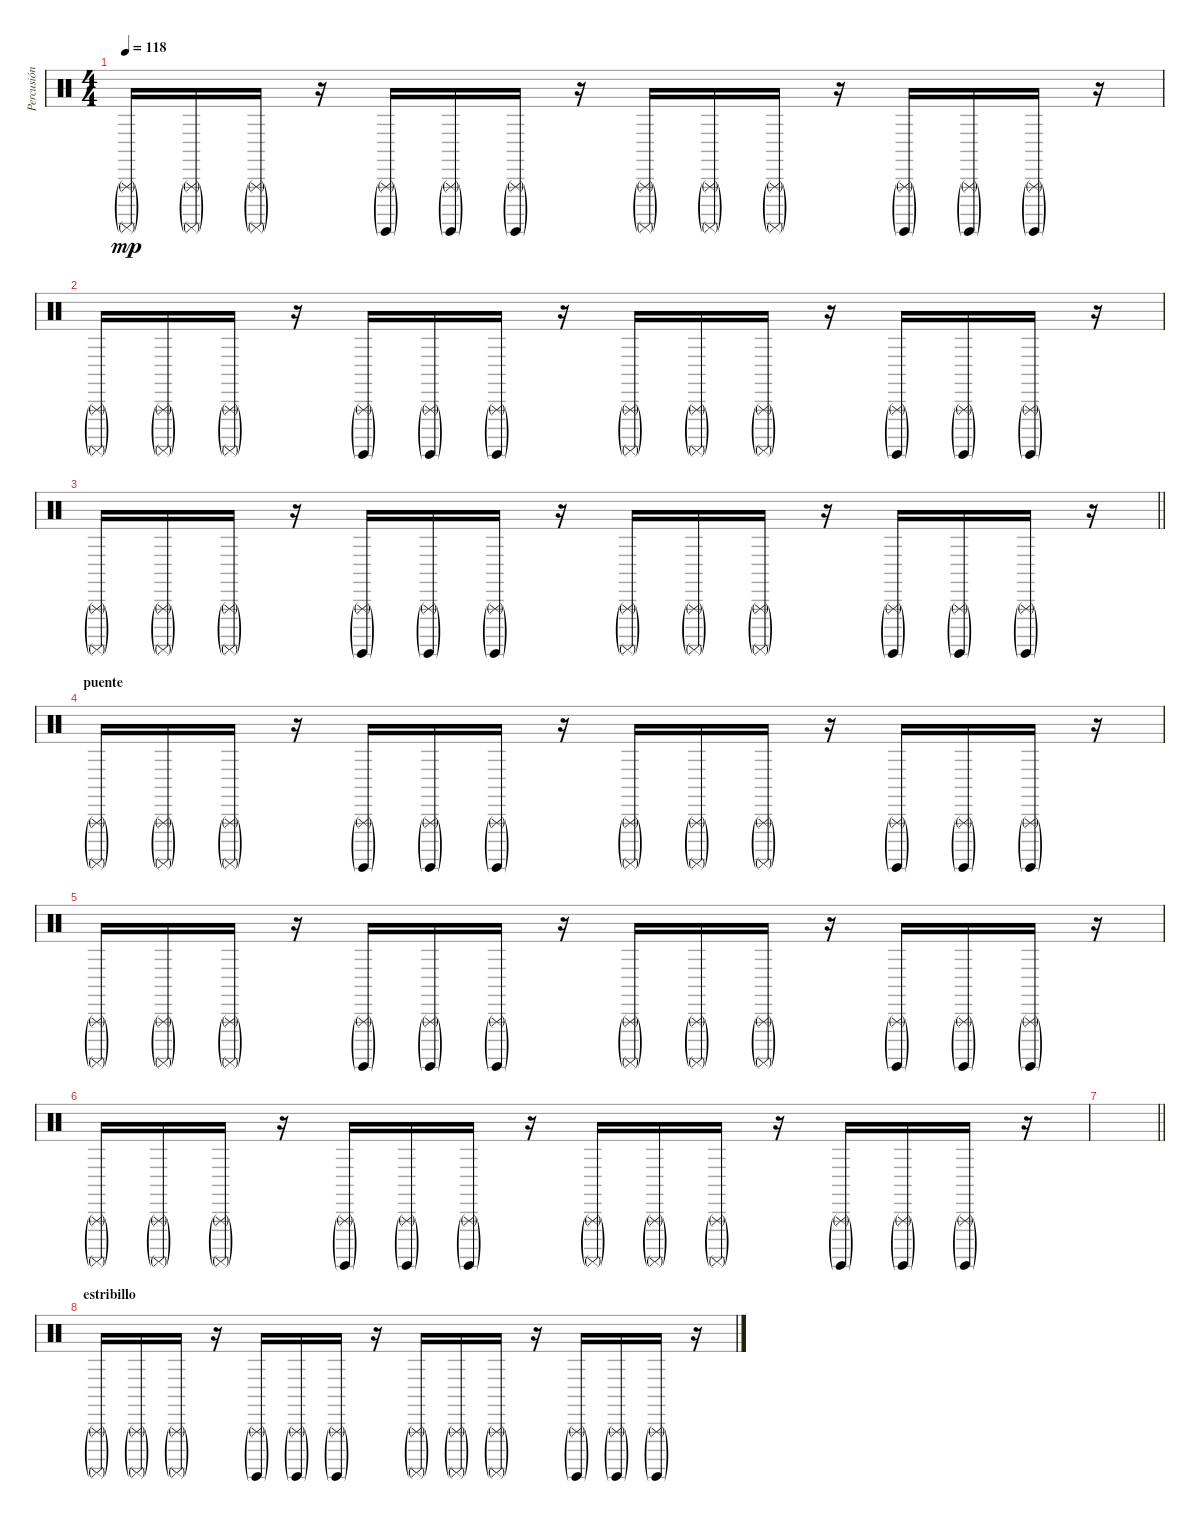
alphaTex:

\track ("Percusión" "Percusión") {instrument percussion}
\staff {score}
\articulation defaults
\ts (4 4)
\tempo 118
\clef neutral
\ks c
("Triangle (rnute)"{g} "Surdo (mute)"{g}).16{dy mp} ("Triangle (rnute)"{g} "Surdo (mute)"{g}).16 ("Triangle (rnute)"{g} "Surdo (mute)"{g}).16 r.16 ("Triangle (rnute)"{g} "Surdo (hit)"{g}).16 ("Triangle (rnute)"{g} "Surdo (hit)"{g}).16 ("Triangle (rnute)"{g} "Surdo (hit)"{g}).16 r.16 ("Triangle (rnute)"{g} "Surdo (mute)"{g}).16 ("Triangle (rnute)"{g} "Surdo (mute)"{g}).16 ("Triangle (rnute)"{g} "Surdo (mute)"{g}).16 r.16 ("Triangle (rnute)"{g} "Surdo (hit)"{g}).16 ("Triangle (rnute)"{g} "Surdo (hit)"{g}).16 ("Triangle (rnute)"{g} "Surdo (hit)"{g}).16 r.16 |
("Triangle (rnute)"{g} "Surdo (mute)"{g}).16 ("Triangle (rnute)"{g} "Surdo (mute)"{g}).16 ("Triangle (rnute)"{g} "Surdo (mute)"{g}).16 r.16 ("Triangle (rnute)"{g} "Surdo (hit)"{g}).16 ("Triangle (rnute)"{g} "Surdo (hit)"{g}).16 ("Triangle (rnute)"{g} "Surdo (hit)"{g}).16 r.16 ("Triangle (rnute)"{g} "Surdo (mute)"{g}).16 ("Triangle (rnute)"{g} "Surdo (mute)"{g}).16 ("Triangle (rnute)"{g} "Surdo (mute)"{g}).16 r.16 ("Triangle (rnute)"{g} "Surdo (hit)"{g}).16 ("Triangle (rnute)"{g} "Surdo (hit)"{g}).16 ("Triangle (rnute)"{g} "Surdo (hit)"{g}).16 r.16 |
\barLineRight lightlight
("Triangle (rnute)"{g} "Surdo (mute)"{g}).16 ("Triangle (rnute)"{g} "Surdo (mute)"{g}).16 ("Triangle (rnute)"{g} "Surdo (mute)"{g}).16 r.16 ("Triangle (rnute)"{g} "Surdo (hit)"{g}).16 ("Triangle (rnute)"{g} "Surdo (hit)"{g}).16 ("Triangle (rnute)"{g} "Surdo (hit)"{g}).16 r.16 ("Triangle (rnute)"{g} "Surdo (mute)"{g}).16 ("Triangle (rnute)"{g} "Surdo (mute)"{g}).16 ("Triangle (rnute)"{g} "Surdo (mute)"{g}).16 r.16 ("Triangle (rnute)"{g} "Surdo (hit)"{g}).16 ("Triangle (rnute)"{g} "Surdo (hit)"{g}).16 ("Triangle (rnute)"{g} "Surdo (hit)"{g}).16 r.16 |
\section ("" "puente")
("Triangle (rnute)"{g} "Surdo (mute)"{g}).16 ("Triangle (rnute)"{g} "Surdo (mute)"{g}).16 ("Triangle (rnute)"{g} "Surdo (mute)"{g}).16 r.16 ("Triangle (rnute)"{g} "Surdo (hit)"{g}).16 ("Triangle (rnute)"{g} "Surdo (hit)"{g}).16 ("Triangle (rnute)"{g} "Surdo (hit)"{g}).16 r.16 ("Triangle (rnute)"{g} "Surdo (mute)"{g}).16 ("Triangle (rnute)"{g} "Surdo (mute)"{g}).16 ("Triangle (rnute)"{g} "Surdo (mute)"{g}).16 r.16 ("Triangle (rnute)"{g} "Surdo (hit)"{g}).16 ("Triangle (rnute)"{g} "Surdo (hit)"{g}).16 ("Triangle (rnute)"{g} "Surdo (hit)"{g}).16 r.16 |
("Triangle (rnute)"{g} "Surdo (mute)"{g}).16 ("Triangle (rnute)"{g} "Surdo (mute)"{g}).16 ("Triangle (rnute)"{g} "Surdo (mute)"{g}).16 r.16 ("Triangle (rnute)"{g} "Surdo (hit)"{g}).16 ("Triangle (rnute)"{g} "Surdo (hit)"{g}).16 ("Triangle (rnute)"{g} "Surdo (hit)"{g}).16 r.16 ("Triangle (rnute)"{g} "Surdo (mute)"{g}).16 ("Triangle (rnute)"{g} "Surdo (mute)"{g}).16 ("Triangle (rnute)"{g} "Surdo (mute)"{g}).16 r.16 ("Triangle (rnute)"{g} "Surdo (hit)"{g}).16 ("Triangle (rnute)"{g} "Surdo (hit)"{g}).16 ("Triangle (rnute)"{g} "Surdo (hit)"{g}).16 r.16 |
("Triangle (rnute)"{g} "Surdo (mute)"{g}).16 ("Triangle (rnute)"{g} "Surdo (mute)"{g}).16 ("Triangle (rnute)"{g} "Surdo (mute)"{g}).16 r.16 ("Triangle (rnute)"{g} "Surdo (hit)"{g}).16 ("Triangle (rnute)"{g} "Surdo (hit)"{g}).16 ("Triangle (rnute)"{g} "Surdo (hit)"{g}).16 r.16 ("Triangle (rnute)"{g} "Surdo (mute)"{g}).16 ("Triangle (rnute)"{g} "Surdo (mute)"{g}).16 ("Triangle (rnute)"{g} "Surdo (mute)"{g}).16 r.16 ("Triangle (rnute)"{g} "Surdo (hit)"{g}).16 ("Triangle (rnute)"{g} "Surdo (hit)"{g}).16 ("Triangle (rnute)"{g} "Surdo (hit)"{g}).16 r.16 |
\barLineRight lightlight
|
\section ("" "estribillo")
("Triangle (rnute)"{g} "Surdo (mute)"{g}).16 ("Triangle (rnute)"{g} "Surdo (mute)"{g}).16 ("Triangle (rnute)"{g} "Surdo (mute)"{g}).16 r.16 ("Triangle (rnute)"{g} "Surdo (hit)"{g}).16 ("Triangle (rnute)"{g} "Surdo (hit)"{g}).16 ("Triangle (rnute)"{g} "Surdo (hit)"{g}).16 r.16 ("Triangle (rnute)"{g} "Surdo (mute)"{g}).16 ("Triangle (rnute)"{g} "Surdo (mute)"{g}).16 ("Triangle (rnute)"{g} "Surdo (mute)"{g}).16 r.16 ("Triangle (rnute)"{g} "Surdo (hit)"{g}).16 ("Triangle (rnute)"{g} "Surdo (hit)"{g}).16 ("Triangle (rnute)"{g} "Surdo (hit)"{g}).16 r.16
